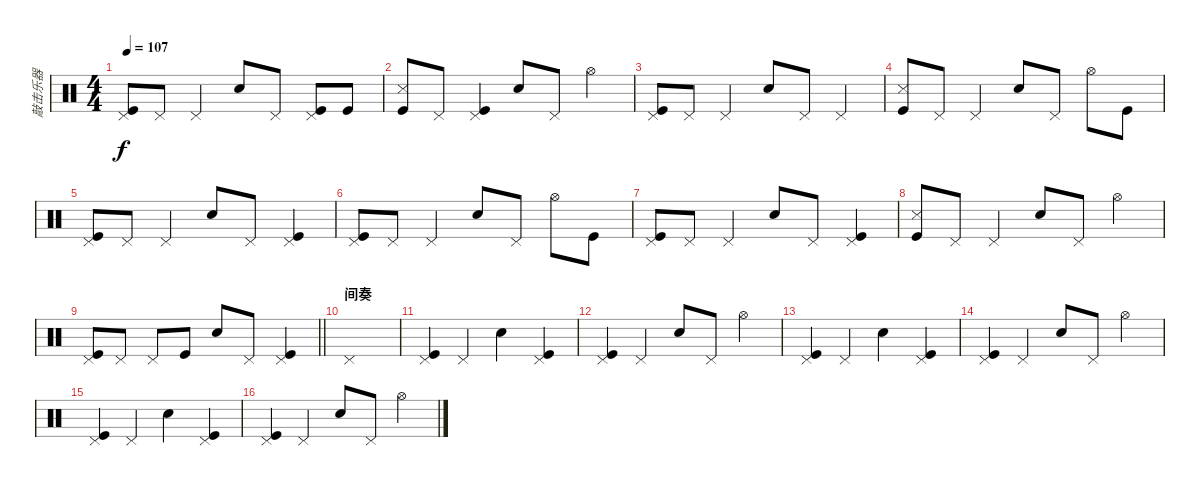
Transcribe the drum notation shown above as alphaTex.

\track ("敲击乐器" "敲击乐器") {instrument percussion}
\staff {score}
\articulation defaults
\ts (4 4)
\tempo 107
\clef neutral
\ks c
("Kick (hit)" "Pedal Hi-Hat (hit)").8{dy f} "Pedal Hi-Hat (hit)".8 "Pedal Hi-Hat (hit)".4 "Snare (hit) 2".8 "Pedal Hi-Hat (hit)".8 ("Kick (hit)" "Pedal Hi-Hat (hit)").8 "Kick (hit)".8 |
("Kick (hit)" "Snare (side stick) 3").8 "Pedal Hi-Hat (hit)".8 ("Kick (hit)" "Pedal Hi-Hat (hit)").4 "Snare (hit) 2".8 "Pedal Hi-Hat (hit)".8 "Hi-Hat (open)".4 |
("Kick (hit)" "Pedal Hi-Hat (hit)").8 "Pedal Hi-Hat (hit)".8 "Pedal Hi-Hat (hit)".4 "Snare (hit) 2".8 "Pedal Hi-Hat (hit)".8 "Pedal Hi-Hat (hit)".4 |
("Kick (hit)" "Snare (side stick) 3").8 "Pedal Hi-Hat (hit)".8 "Pedal Hi-Hat (hit)".4 "Snare (hit) 2".8 "Pedal Hi-Hat (hit)".8 "Hi-Hat (open)".8 "Kick (hit)".8 |
("Kick (hit)" "Pedal Hi-Hat (hit)").8 "Pedal Hi-Hat (hit)".8 "Pedal Hi-Hat (hit)".4 "Snare (hit) 2".8 "Pedal Hi-Hat (hit)".8 ("Kick (hit)" "Pedal Hi-Hat (hit)").4 |
("Kick (hit)" "Pedal Hi-Hat (hit)").8 "Pedal Hi-Hat (hit)".8 "Pedal Hi-Hat (hit)".4 "Snare (hit) 2".8 "Pedal Hi-Hat (hit)".8 "Hi-Hat (open)".8 "Kick (hit)".8 |
("Kick (hit)" "Pedal Hi-Hat (hit)").8 "Pedal Hi-Hat (hit)".8 "Pedal Hi-Hat (hit)".4 "Snare (hit) 2".8 "Pedal Hi-Hat (hit)".8 ("Kick (hit)" "Pedal Hi-Hat (hit)").4 |
("Kick (hit)" "Snare (side stick) 3").8 "Pedal Hi-Hat (hit)".8 "Pedal Hi-Hat (hit)".4 "Snare (hit) 2".8 "Pedal Hi-Hat (hit)".8 "Hi-Hat (open)".4 |
\barLineRight lightlight
("Kick (hit)" "Pedal Hi-Hat (hit)").8 "Pedal Hi-Hat (hit)".8 "Pedal Hi-Hat (hit)".8 "Kick (hit)".8 "Snare (hit) 2".8 "Pedal Hi-Hat (hit)".8 ("Kick (hit)" "Pedal Hi-Hat (hit)").4 |
\section ("" "间奏")
"Pedal Hi-Hat (hit)".1 |
("Kick (hit)" "Pedal Hi-Hat (hit)").4 "Pedal Hi-Hat (hit)".4 "Snare (hit) 2".4 ("Kick (hit)" "Pedal Hi-Hat (hit)").4 |
("Kick (hit)" "Pedal Hi-Hat (hit)").4 "Pedal Hi-Hat (hit)".4 "Snare (hit) 2".8 "Pedal Hi-Hat (hit)".8 "Hi-Hat (open)".4 |
("Kick (hit)" "Pedal Hi-Hat (hit)").4 "Pedal Hi-Hat (hit)".4 "Snare (hit) 2".4 ("Kick (hit)" "Pedal Hi-Hat (hit)").4 |
("Kick (hit)" "Pedal Hi-Hat (hit)").4 "Pedal Hi-Hat (hit)".4 "Snare (hit) 2".8 "Pedal Hi-Hat (hit)".8 "Hi-Hat (open)".4 |
("Kick (hit)" "Pedal Hi-Hat (hit)").4 "Pedal Hi-Hat (hit)".4 "Snare (hit) 2".4 ("Kick (hit)" "Pedal Hi-Hat (hit)").4 |
("Kick (hit)" "Pedal Hi-Hat (hit)").4 "Pedal Hi-Hat (hit)".4 "Snare (hit) 2".8 "Pedal Hi-Hat (hit)".8 "Hi-Hat (open)".4
